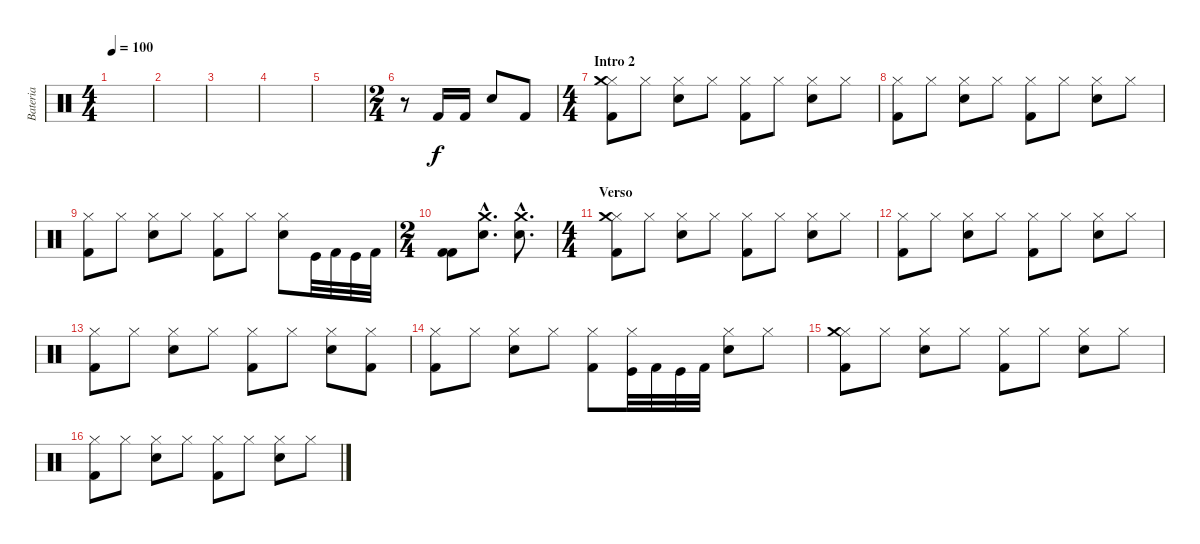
\track ("Bateria" "Bateria") {instrument percussion}
\staff {score}
\articulation defaults
\ts (4 4)
\tempo 100
\clef neutral
\ks c
|
|
|
|
|
\ts (2 4)
r.8 "Kick (hit) 2".16 "Kick (hit) 2".16 "Snare (hit) 2".8 "Kick (hit) 2".8 |
\ts (4 4)
\section ("" "Intro 2")
("Hi-Hat (closed)" "Kick (hit) 2" "Crash medium (hit)").8 "Hi-Hat (closed)".8 ("Snare (hit) 2" "Hi-Hat (closed)").8 "Hi-Hat (closed)".8 ("Hi-Hat (closed)" "Kick (hit) 2").8 "Hi-Hat (closed)".8 ("Snare (hit) 2" "Hi-Hat (closed)").8 "Hi-Hat (closed)".8 |
("Hi-Hat (closed)" "Kick (hit) 2").8 "Hi-Hat (closed)".8 ("Snare (hit) 2" "Hi-Hat (closed)").8 "Hi-Hat (closed)".8 ("Hi-Hat (closed)" "Kick (hit) 2").8 "Hi-Hat (closed)".8 ("Snare (hit) 2" "Hi-Hat (closed)").8 "Hi-Hat (closed)".8 |
("Hi-Hat (closed)" "Kick (hit) 2").8 "Hi-Hat (closed)".8 ("Snare (hit) 2" "Hi-Hat (closed)").8 "Hi-Hat (closed)".8 ("Hi-Hat (closed)" "Kick (hit) 2").8 "Hi-Hat (closed)".8 ("Snare (hit) 2" "Hi-Hat (closed)").8 "Kick (hit)".32 "Kick (hit) 2".32 "Kick (hit)".32 "Kick (hit) 2".32 |
\ts (2 4)
("Kick (hit) 2" "Kick (hit) 2").8 ("Crash medium (hit)"{hac} "Snare (hit) 2"{hac}).8{d} ("Crash medium (hit)"{hac} "Snare (hit) 2"{hac}).8{d} |
\ts (4 4)
\section ("" "Verso")
("Hi-Hat (closed)" "Kick (hit) 2" "Crash medium (hit)").8 "Hi-Hat (closed)".8 ("Snare (hit) 2" "Hi-Hat (closed)").8 "Hi-Hat (closed)".8 ("Hi-Hat (closed)" "Kick (hit) 2").8 "Hi-Hat (closed)".8 ("Snare (hit) 2" "Hi-Hat (closed)").8 "Hi-Hat (closed)".8 |
("Hi-Hat (closed)" "Kick (hit) 2").8 "Hi-Hat (closed)".8 ("Snare (hit) 2" "Hi-Hat (closed)").8 "Hi-Hat (closed)".8 ("Hi-Hat (closed)" "Kick (hit) 2").8 "Hi-Hat (closed)".8 ("Snare (hit) 2" "Hi-Hat (closed)").8 "Hi-Hat (closed)".8 |
("Hi-Hat (closed)" "Kick (hit) 2").8 "Hi-Hat (closed)".8 ("Snare (hit) 2" "Hi-Hat (closed)").8 "Hi-Hat (closed)".8 ("Hi-Hat (closed)" "Kick (hit) 2").8 "Hi-Hat (closed)".8 ("Snare (hit) 2" "Hi-Hat (closed)").8 ("Hi-Hat (closed)" "Kick (hit) 2").8 |
("Hi-Hat (closed)" "Kick (hit) 2").8 "Hi-Hat (closed)".8 ("Snare (hit) 2" "Hi-Hat (closed)").8 "Hi-Hat (closed)".8 ("Hi-Hat (closed)" "Kick (hit) 2").8 ("Hi-Hat (closed)" "Kick (hit)").32 "Kick (hit) 2".32 "Kick (hit)".32 "Kick (hit) 2".32 ("Snare (hit) 2" "Hi-Hat (closed)").8 "Hi-Hat (closed)".8 |
("Hi-Hat (closed)" "Kick (hit) 2" "Crash medium (hit)").8 "Hi-Hat (closed)".8 ("Snare (hit) 2" "Hi-Hat (closed)").8 "Hi-Hat (closed)".8 ("Hi-Hat (closed)" "Kick (hit) 2").8 "Hi-Hat (closed)".8 ("Snare (hit) 2" "Hi-Hat (closed)").8 "Hi-Hat (closed)".8 |
("Hi-Hat (closed)" "Kick (hit) 2").8 "Hi-Hat (closed)".8 ("Snare (hit) 2" "Hi-Hat (closed)").8 "Hi-Hat (closed)".8 ("Hi-Hat (closed)" "Kick (hit) 2").8 "Hi-Hat (closed)".8 ("Snare (hit) 2" "Hi-Hat (closed)").8 "Hi-Hat (closed)".8
